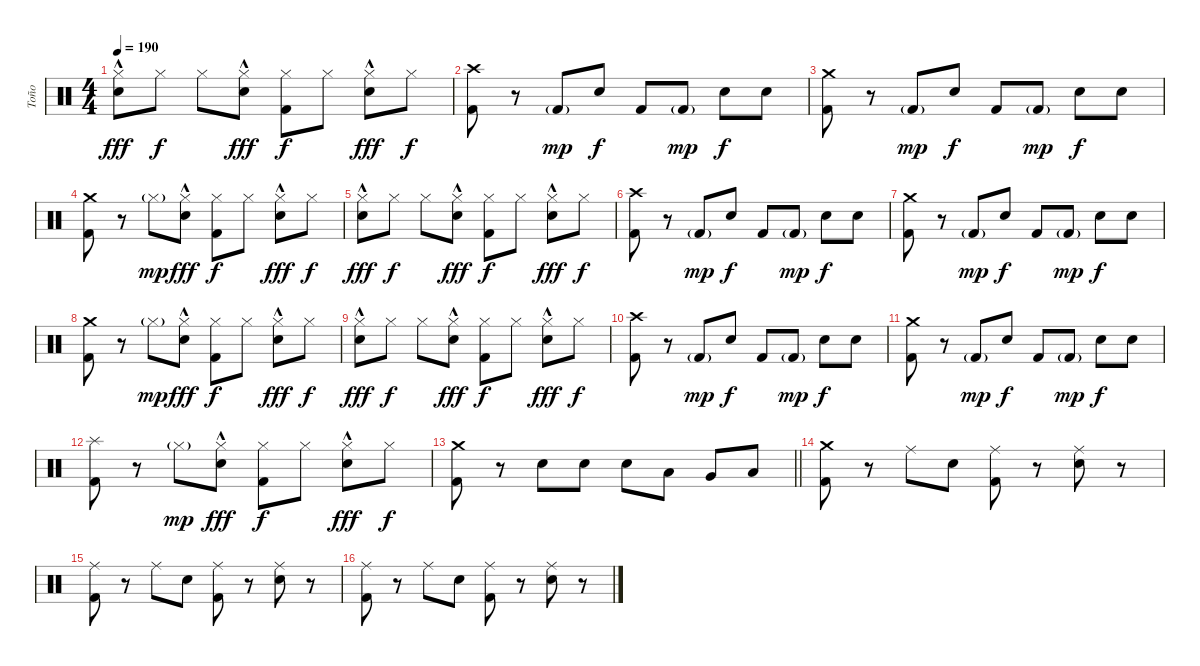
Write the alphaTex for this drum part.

\track ("Toño" "Toño") {instrument percussion}
\staff {score}
\articulation defaults
\ts (4 4)
\tempo 190
\clef neutral
\ks c
("Hi-Hat (closed)"{hac} "Snare (hit) 2").8{dy fff} "Hi-Hat (closed)".8{dy f} "Hi-Hat (closed)".8 ("Hi-Hat (closed)"{hac} "Snare (hit) 2").8{dy fff} ("Hi-Hat (closed)" "Kick (hit) 2").8{dy f} "Hi-Hat (closed)".8 ("Hi-Hat (closed)"{hac} "Snare (hit) 2").8{dy fff} "Hi-Hat (closed)".8{dy f} |
("Crash high (hit)" "Kick (hit) 2").8 r.8 "Kick (hit) 2"{g}.8{dy mp} "Snare (hit) 2".8{dy f} "Kick (hit) 2".8 "Kick (hit) 2"{g}.8{dy mp} "Snare (hit) 2".8{dy f} "Snare (hit) 2".8 |
("Crash medium (hit)" "Kick (hit) 2").8 r.8 "Kick (hit) 2"{g}.8{dy mp} "Snare (hit) 2".8{dy f} "Kick (hit) 2".8 "Kick (hit) 2"{g}.8{dy mp} "Snare (hit) 2".8{dy f} "Snare (hit) 2".8 |
("Crash medium (hit)" "Kick (hit) 2").8 r.8 "Hi-Hat (closed)"{g}.8{dy mp} ("Hi-Hat (closed)"{hac} "Snare (hit) 2").8{dy fff} ("Hi-Hat (closed)" "Kick (hit) 2").8{dy f} "Hi-Hat (closed)".8 ("Hi-Hat (closed)"{hac} "Snare (hit) 2").8{dy fff} "Hi-Hat (closed)".8{dy f} |
("Hi-Hat (closed)"{hac} "Snare (hit) 2").8{dy fff} "Hi-Hat (closed)".8{dy f} "Hi-Hat (closed)".8 ("Hi-Hat (closed)"{hac} "Snare (hit) 2").8{dy fff} ("Hi-Hat (closed)" "Kick (hit) 2").8{dy f} "Hi-Hat (closed)".8 ("Hi-Hat (closed)"{hac} "Snare (hit) 2").8{dy fff} "Hi-Hat (closed)".8{dy f} |
("Crash high (hit)" "Kick (hit) 2").8 r.8 "Kick (hit) 2"{g}.8{dy mp} "Snare (hit) 2".8{dy f} "Kick (hit) 2".8 "Kick (hit) 2"{g}.8{dy mp} "Snare (hit) 2".8{dy f} "Snare (hit) 2".8 |
("Crash medium (hit)" "Kick (hit) 2").8 r.8 "Kick (hit) 2"{g}.8{dy mp} "Snare (hit) 2".8{dy f} "Kick (hit) 2".8 "Kick (hit) 2"{g}.8{dy mp} "Snare (hit) 2".8{dy f} "Snare (hit) 2".8 |
("Crash medium (hit)" "Kick (hit) 2").8 r.8 "Hi-Hat (closed)"{g}.8{dy mp} ("Hi-Hat (closed)"{hac} "Snare (hit) 2").8{dy fff} ("Hi-Hat (closed)" "Kick (hit) 2").8{dy f} "Hi-Hat (closed)".8 ("Hi-Hat (closed)"{hac} "Snare (hit) 2").8{dy fff} "Hi-Hat (closed)".8{dy f} |
("Hi-Hat (closed)"{hac} "Snare (hit) 2").8{dy fff} "Hi-Hat (closed)".8{dy f} "Hi-Hat (closed)".8 ("Hi-Hat (closed)"{hac} "Snare (hit) 2").8{dy fff} ("Hi-Hat (closed)" "Kick (hit) 2").8{dy f} "Hi-Hat (closed)".8 ("Hi-Hat (closed)"{hac} "Snare (hit) 2").8{dy fff} "Hi-Hat (closed)".8{dy f} |
("Crash high (hit)" "Kick (hit) 2").8 r.8 "Kick (hit) 2"{g}.8{dy mp} "Snare (hit) 2".8{dy f} "Kick (hit) 2".8 "Kick (hit) 2"{g}.8{dy mp} "Snare (hit) 2".8{dy f} "Snare (hit) 2".8 |
("Crash medium (hit)" "Kick (hit) 2").8 r.8 "Kick (hit) 2"{g}.8{dy mp} "Snare (hit) 2".8{dy f} "Kick (hit) 2".8 "Kick (hit) 2"{g}.8{dy mp} "Snare (hit) 2".8{dy f} "Snare (hit) 2".8 |
("Splash (hit)" "Kick (hit) 2").8 r.8 "Hi-Hat (closed)"{g}.8{dy mp} ("Hi-Hat (closed)"{hac} "Snare (hit) 2").8{dy fff} ("Hi-Hat (closed)" "Kick (hit) 2").8{dy f} "Hi-Hat (closed)".8 ("Hi-Hat (closed)"{hac} "Snare (hit) 2").8{dy fff} "Hi-Hat (closed)".8{dy f} |
\barLineRight lightlight
("Crash medium (hit)" "Kick (hit) 2").8 r.8 "Snare (hit) 2".8 "Snare (hit) 2".8 "Snare (hit) 2".8 "Low Tom (hit)".8 "Very Low Tom (hit)".8 "Low Floor Tom (hit)".8 |
("Crash medium (hit)" "Kick (hit) 2").8 r.8 "Ride (middle)".8 "Snare (hit) 2".8 ("Ride (middle)" "Kick (hit) 2").8 r.8 ("Ride (middle)" "Snare (hit) 2").8 r.8 |
("Ride (middle)" "Kick (hit) 2").8 r.8 "Ride (middle)".8 "Snare (hit) 2".8 ("Ride (middle)" "Kick (hit) 2").8 r.8 ("Ride (middle)" "Snare (hit) 2").8 r.8 |
("Ride (middle)" "Kick (hit) 2").8 r.8 "Ride (middle)".8 "Snare (hit) 2".8 ("Ride (middle)" "Kick (hit) 2").8 r.8 ("Ride (middle)" "Snare (hit) 2").8 r.8
